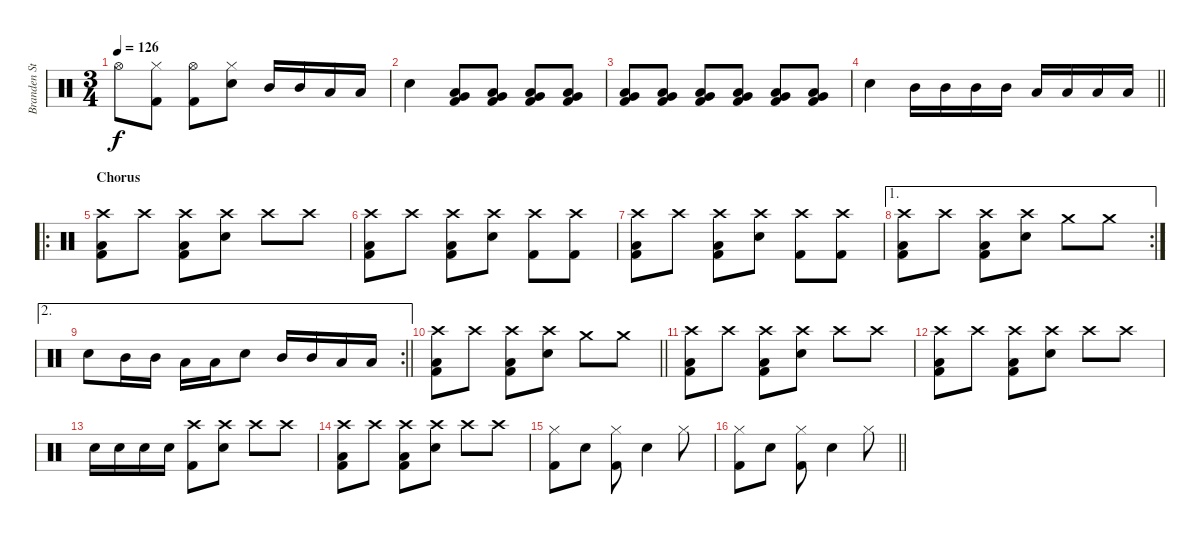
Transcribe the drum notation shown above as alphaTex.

\track ("Branden Steineckert [Drums]" "Branden St") {instrument percussion}
\staff {score}
\articulation defaults
\ts (3 4)
\tempo 126
\clef neutral
\ks c "Hi-Hat (open)".8{dy f}
("Hi-Hat (closed)" "Kick (hit) 2").8 ("Hi-Hat (open)" "Kick (hit) 2").8 ("Hi-Hat (closed)" "Electric Snare (hit)").8 "Mid Tom (hit)".16 "Mid Tom (hit)".16 "Low Tom (hit)".16 "Low Tom (hit)".16 |
"Electric Snare (hit)".4 ("Very Low Tom (hit)" "Low Floor Tom (hit)" "Kick (hit) 2").8 ("Very Low Tom (hit)" "Low Floor Tom (hit)" "Kick (hit) 2").8 ("Very Low Tom (hit)" "Low Floor Tom (hit)" "Kick (hit) 2").8 ("Very Low Tom (hit)" "Low Floor Tom (hit)" "Kick (hit) 2").8 |
("Very Low Tom (hit)" "Low Floor Tom (hit)" "Kick (hit) 2").8 ("Very Low Tom (hit)" "Low Floor Tom (hit)" "Kick (hit) 2").8 ("Very Low Tom (hit)" "Low Floor Tom (hit)" "Kick (hit) 2").8 ("Very Low Tom (hit)" "Low Floor Tom (hit)" "Kick (hit) 2").8 ("Very Low Tom (hit)" "Low Floor Tom (hit)" "Kick (hit) 2").8 ("Very Low Tom (hit)" "Low Floor Tom (hit)" "Kick (hit) 2").8 |
\barLineRight lightlight "Electric Snare (hit)".4 "Mid Tom (hit)".16 "Mid Tom (hit)".16 "Mid Tom (hit)".16 "Mid Tom (hit)".16 "Low Tom (hit)".16 "Low Tom (hit)".16 "Low Tom (hit)".16 "Low Tom (hit)".16
|
\ro
\section ("" "Chorus")
("Crash high (hit)" "Low Floor Tom (hit)" "Kick (hit) 2").8 "Crash high (hit)".8 ("Crash high (hit)" "Low Floor Tom (hit)" "Kick (hit) 2").8 ("Crash high (hit)" "Electric Snare (hit)").8 "Crash high (hit)".8 "Crash high (hit)".8 |
("Crash high (hit)" "Low Floor Tom (hit)" "Kick (hit) 2").8 "Crash high (hit)".8 ("Crash high (hit)" "Low Floor Tom (hit)" "Kick (hit) 2").8 ("Crash high (hit)" "Electric Snare (hit)").8 ("Crash high (hit)" "Kick (hit) 2").8 ("Crash high (hit)" "Kick (hit) 2").8 |
("Crash high (hit)" "Low Floor Tom (hit)" "Kick (hit) 2").8 "Crash high (hit)".8 ("Crash high (hit)" "Low Floor Tom (hit)" "Kick (hit) 2").8 ("Crash high (hit)" "Electric Snare (hit)").8 ("Crash high (hit)" "Kick (hit) 2").8 ("Crash high (hit)" "Kick (hit) 2").8 |
\ae 1
\rc 2
("Crash high (hit)" "Low Floor Tom (hit)" "Kick (hit) 2").8 "Crash high (hit)".8 ("Crash high (hit)" "Low Floor Tom (hit)" "Kick (hit) 2").8 ("Crash high (hit)" "Electric Snare (hit)").8 "Crash medium (hit)".8 "Crash medium (hit)".8 |
\ae 2
\rc 2
\barLineRight lightlight "Electric Snare (hit)".8 "Mid Tom (hit)".16 "Mid Tom (hit)".16 "Low Tom (hit)".16 "Low Tom (hit)".16 "Electric Snare (hit)".8 "Mid Tom (hit)".16 "Mid Tom (hit)".16 "Low Tom (hit)".16 "Low Tom (hit)".16
|
\barLineRight lightlight
("Crash high (hit)" "Low Floor Tom (hit)" "Kick (hit) 2").8 "Crash high (hit)".8 ("Crash high (hit)" "Low Floor Tom (hit)" "Kick (hit) 2").8 ("Crash high (hit)" "Electric Snare (hit)").8 "Crash medium (hit)".8 "Crash medium (hit)".8 |
("Crash high (hit)" "Low Floor Tom (hit)" "Kick (hit) 2").8 "Crash high (hit)".8 ("Crash high (hit)" "Low Floor Tom (hit)" "Kick (hit) 2").8 ("Crash high (hit)" "Electric Snare (hit)").8 "Crash high (hit)".8 "Crash high (hit)".8 |
("Crash high (hit)" "Low Floor Tom (hit)" "Kick (hit) 2").8 "Crash high (hit)".8 ("Crash high (hit)" "Low Floor Tom (hit)" "Kick (hit) 2").8 ("Crash high (hit)" "Electric Snare (hit)").8 "Crash high (hit)".8 "Crash high (hit)".8 |
"Electric Snare (hit)".16 "Electric Snare (hit)".16 "Electric Snare (hit)".16 "Electric Snare (hit)".16 ("Crash high (hit)" "Kick (hit) 2").8 ("Crash high (hit)" "Electric Snare (hit)").8 "Crash high (hit)".8 "Crash high (hit)".8 |
("Crash high (hit)" "Low Floor Tom (hit)" "Kick (hit) 2").8 "Crash high (hit)".8 ("Crash high (hit)" "Low Floor Tom (hit)" "Kick (hit) 2").8 ("Crash high (hit)" "Electric Snare (hit)").8 "Crash high (hit)".8 "Crash high (hit)".8 |
("Hi-Hat (closed)" "Kick (hit) 2").8 "Electric Snare (hit)".8 ("Hi-Hat (closed)" "Kick (hit) 2").8 "Electric Snare (hit)".4 "Hi-Hat (closed)".8 |
\barLineRight lightlight
("Hi-Hat (closed)" "Kick (hit) 2").8 "Electric Snare (hit)".8 ("Hi-Hat (closed)" "Kick (hit) 2").8 "Electric Snare (hit)".4 "Hi-Hat (closed)".8
